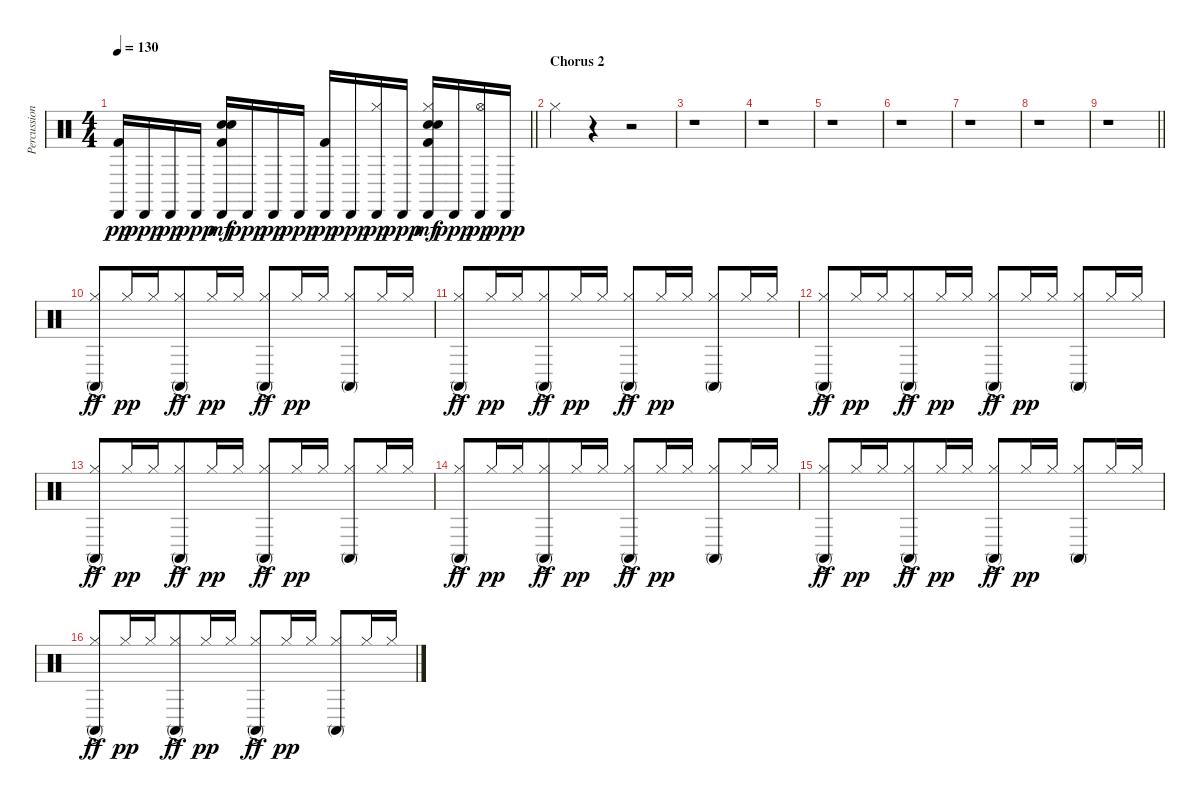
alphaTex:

\track ("Percussion" "Percussion") {instrument percussion}
\staff {score}
\articulation defaults
\ts (4 4)
\tempo 130
\clef neutral
\barLineRight lightlight
\ks aminor
("Cabasa (hit)" "Kick (hit) 2").16{dy pp} "Cabasa (hit)".16{dy ppp} "Cabasa (hit)".16{dy pp} "Cabasa (hit)".16{dy ppp} ("Cabasa (hit)" "Hand Clap (hit)" "Snare (hit) 2" "Kick (hit) 2").16{dy mf} "Cabasa (hit)".16{dy ppp} "Cabasa (hit)".16{dy pp} "Cabasa (hit)".16{dy ppp} ("Cabasa (hit)" "Kick (hit) 2").16{dy pp} "Cabasa (hit)".16{dy ppp} ("Hi-Hat (closed)" "Cabasa (hit)").16{dy pp} "Cabasa (hit)".16{dy ppp} ("Hi-Hat (closed)" "Cabasa (hit)" "Hand Clap (hit)" "Snare (hit) 2" "Kick (hit) 2").16{dy mf} "Cabasa (hit)".16{dy ppp} ("Hi-Hat (open)" "Cabasa (hit)").16{dy pp} "Cabasa (hit)".16{dy ppp} |
\section ("" "Chorus 2")
"Hi-Hat (closed)".4 r.4 r.2 |
r.1 |
r.1 |
r.1 |
r.1 |
r.1 |
r.1 |
\barLineRight lightlight
r.1 |
\section ("" "")
("Hi-Hat (closed)" "Conga high (mute)"{ac}).8{dy ff} "Hi-Hat (closed)".16{dy pp} "Hi-Hat (closed)".16{beam merge} ("Hi-Hat (closed)" "Conga high (mute)"{ac}).8{dy ff} "Hi-Hat (closed)".16{dy pp} "Hi-Hat (closed)".16 ("Hi-Hat (closed)" "Conga high (mute)"{ac}).8{dy ff beam merge} "Hi-Hat (closed)".16{dy pp} "Hi-Hat (closed)".16 ("Hi-Hat (closed)" "Conga high (mute)").8 "Hi-Hat (closed)".16 "Hi-Hat (closed)".16 |
("Hi-Hat (closed)" "Conga high (mute)"{ac}).8{dy ff} "Hi-Hat (closed)".16{dy pp} "Hi-Hat (closed)".16{beam merge} ("Hi-Hat (closed)" "Conga high (mute)"{ac}).8{dy ff} "Hi-Hat (closed)".16{dy pp} "Hi-Hat (closed)".16 ("Hi-Hat (closed)" "Conga high (mute)"{ac}).8{dy ff beam merge} "Hi-Hat (closed)".16{dy pp} "Hi-Hat (closed)".16 ("Hi-Hat (closed)" "Conga high (mute)").8 "Hi-Hat (closed)".16 "Hi-Hat (closed)".16 |
("Hi-Hat (closed)" "Conga high (mute)"{ac}).8{dy ff} "Hi-Hat (closed)".16{dy pp} "Hi-Hat (closed)".16{beam merge} ("Hi-Hat (closed)" "Conga high (mute)"{ac}).8{dy ff} "Hi-Hat (closed)".16{dy pp} "Hi-Hat (closed)".16 ("Hi-Hat (closed)" "Conga high (mute)"{ac}).8{dy ff beam merge} "Hi-Hat (closed)".16{dy pp} "Hi-Hat (closed)".16 ("Hi-Hat (closed)" "Conga high (mute)").8 "Hi-Hat (closed)".16 "Hi-Hat (closed)".16 |
("Hi-Hat (closed)" "Conga high (mute)"{ac}).8{dy ff} "Hi-Hat (closed)".16{dy pp} "Hi-Hat (closed)".16{beam merge} ("Hi-Hat (closed)" "Conga high (mute)"{ac}).8{dy ff} "Hi-Hat (closed)".16{dy pp} "Hi-Hat (closed)".16 ("Hi-Hat (closed)" "Conga high (mute)"{ac}).8{dy ff beam merge} "Hi-Hat (closed)".16{dy pp} "Hi-Hat (closed)".16 ("Hi-Hat (closed)" "Conga high (mute)").8 "Hi-Hat (closed)".16 "Hi-Hat (closed)".16 |
("Hi-Hat (closed)" "Conga high (mute)"{ac}).8{dy ff} "Hi-Hat (closed)".16{dy pp} "Hi-Hat (closed)".16{beam merge} ("Hi-Hat (closed)" "Conga high (mute)"{ac}).8{dy ff} "Hi-Hat (closed)".16{dy pp} "Hi-Hat (closed)".16 ("Hi-Hat (closed)" "Conga high (mute)"{ac}).8{dy ff beam merge} "Hi-Hat (closed)".16{dy pp} "Hi-Hat (closed)".16 ("Hi-Hat (closed)" "Conga high (mute)").8 "Hi-Hat (closed)".16 "Hi-Hat (closed)".16 |
("Hi-Hat (closed)" "Conga high (mute)"{ac}).8{dy ff} "Hi-Hat (closed)".16{dy pp} "Hi-Hat (closed)".16{beam merge} ("Hi-Hat (closed)" "Conga high (mute)"{ac}).8{dy ff} "Hi-Hat (closed)".16{dy pp} "Hi-Hat (closed)".16 ("Hi-Hat (closed)" "Conga high (mute)"{ac}).8{dy ff beam merge} "Hi-Hat (closed)".16{dy pp} "Hi-Hat (closed)".16 ("Hi-Hat (closed)" "Conga high (mute)").8 "Hi-Hat (closed)".16 "Hi-Hat (closed)".16 |
("Hi-Hat (closed)" "Conga high (mute)"{ac}).8{dy ff} "Hi-Hat (closed)".16{dy pp} "Hi-Hat (closed)".16{beam merge} ("Hi-Hat (closed)" "Conga high (mute)"{ac}).8{dy ff} "Hi-Hat (closed)".16{dy pp} "Hi-Hat (closed)".16 ("Hi-Hat (closed)" "Conga high (mute)"{ac}).8{dy ff beam merge} "Hi-Hat (closed)".16{dy pp} "Hi-Hat (closed)".16 ("Hi-Hat (closed)" "Conga high (mute)").8 "Hi-Hat (closed)".16 "Hi-Hat (closed)".16
